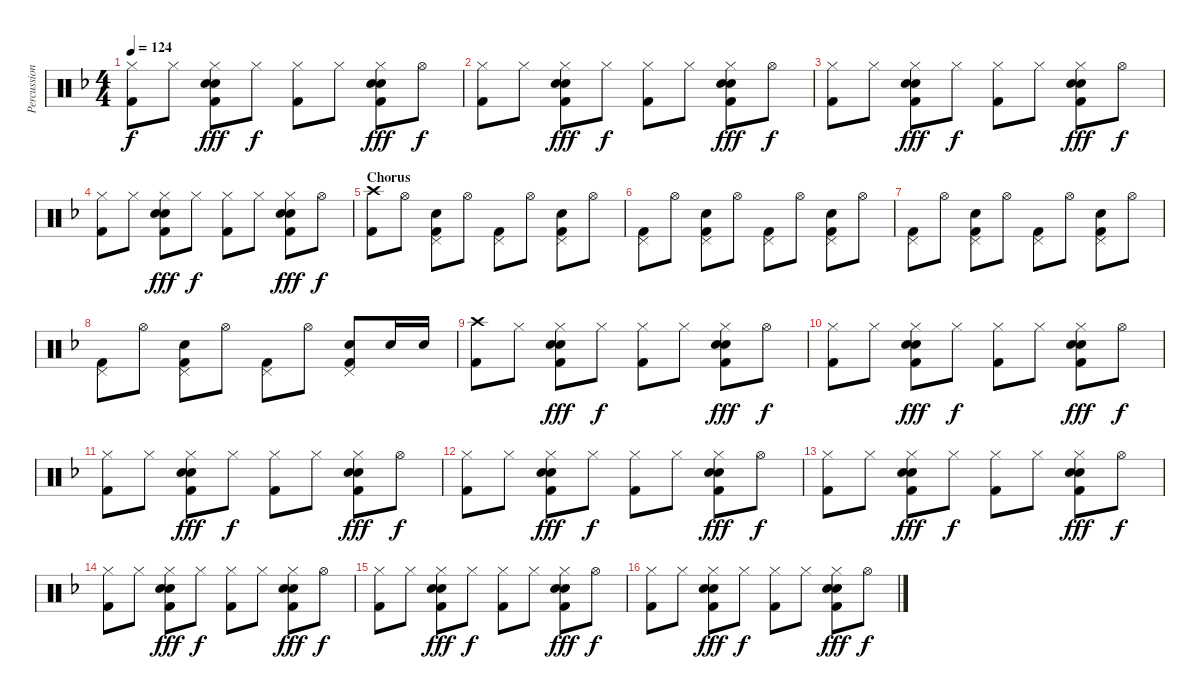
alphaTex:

\track ("Percussion" "Percussion") {instrument percussion}
\staff {score}
\articulation defaults
\ts (4 4)
\tempo 124
\clef neutral
\ks f
("Hi-Hat (closed)" "Kick (hit) 2").8{dy f} "Hi-Hat (closed)".8 ("Hi-Hat (closed)" "Hand Clap (hit)" "Electric Snare (hit)" "Kick (hit) 2").8{dy fff} "Hi-Hat (closed)".8{dy f} ("Hi-Hat (closed)" "Kick (hit) 2").8 "Hi-Hat (closed)".8 ("Hi-Hat (closed)" "Hand Clap (hit)" "Electric Snare (hit)" "Kick (hit) 2").8{dy fff} "Hi-Hat (open)".8{dy f} |
("Hi-Hat (closed)" "Kick (hit) 2").8 "Hi-Hat (closed)".8 ("Hi-Hat (closed)" "Hand Clap (hit)" "Electric Snare (hit)" "Kick (hit) 2").8{dy fff} "Hi-Hat (closed)".8{dy f} ("Hi-Hat (closed)" "Kick (hit) 2").8 "Hi-Hat (closed)".8 ("Hi-Hat (closed)" "Hand Clap (hit)" "Electric Snare (hit)" "Kick (hit) 2").8{dy fff} "Hi-Hat (open)".8{dy f} |
("Hi-Hat (closed)" "Kick (hit) 2").8 "Hi-Hat (closed)".8 ("Hi-Hat (closed)" "Hand Clap (hit)" "Electric Snare (hit)" "Kick (hit) 2").8{dy fff} "Hi-Hat (closed)".8{dy f} ("Hi-Hat (closed)" "Kick (hit) 2").8 "Hi-Hat (closed)".8 ("Hi-Hat (closed)" "Hand Clap (hit)" "Electric Snare (hit)" "Kick (hit) 2").8{dy fff} "Hi-Hat (open)".8{dy f} |
("Hi-Hat (closed)" "Kick (hit) 2").8 "Hi-Hat (closed)".8 ("Hi-Hat (closed)" "Hand Clap (hit)" "Electric Snare (hit)" "Kick (hit) 2").8{dy fff} "Hi-Hat (closed)".8{dy f} ("Hi-Hat (closed)" "Kick (hit) 2").8 "Hi-Hat (closed)".8 ("Hi-Hat (closed)" "Hand Clap (hit)" "Electric Snare (hit)" "Kick (hit) 2").8{dy fff} "Hi-Hat (open)".8{dy f} |
\section ("" "Chorus")
("Crash high (hit)" "Kick (hit) 2").8 "Hi-Hat (open)".8 ("Pedal Hi-Hat (hit)" "Electric Snare (hit)" "Kick (hit) 2").8 "Hi-Hat (open)".8 ("Pedal Hi-Hat (hit)" "Kick (hit) 2").8 "Hi-Hat (open)".8 ("Pedal Hi-Hat (hit)" "Electric Snare (hit)" "Kick (hit) 2").8 "Hi-Hat (open)".8 |
("Pedal Hi-Hat (hit)" "Kick (hit) 2").8 "Hi-Hat (open)".8 ("Pedal Hi-Hat (hit)" "Electric Snare (hit)" "Kick (hit) 2").8 "Hi-Hat (open)".8 ("Pedal Hi-Hat (hit)" "Kick (hit) 2").8 "Hi-Hat (open)".8 ("Pedal Hi-Hat (hit)" "Electric Snare (hit)" "Kick (hit) 2").8 "Hi-Hat (open)".8 |
("Pedal Hi-Hat (hit)" "Kick (hit) 2").8 "Hi-Hat (open)".8 ("Pedal Hi-Hat (hit)" "Electric Snare (hit)" "Kick (hit) 2").8 "Hi-Hat (open)".8 ("Pedal Hi-Hat (hit)" "Kick (hit) 2").8 "Hi-Hat (open)".8 ("Pedal Hi-Hat (hit)" "Electric Snare (hit)" "Kick (hit) 2").8 "Hi-Hat (open)".8 |
("Pedal Hi-Hat (hit)" "Kick (hit) 2").8 "Hi-Hat (open)".8 ("Pedal Hi-Hat (hit)" "Electric Snare (hit)" "Kick (hit) 2").8 "Hi-Hat (open)".8 ("Pedal Hi-Hat (hit)" "Kick (hit) 2").8 "Hi-Hat (open)".8 ("Pedal Hi-Hat (hit)" "Electric Snare (hit)" "Kick (hit) 2").8 "Electric Snare (hit)".16 "Electric Snare (hit)".16 |
("Crash high (hit)" "Kick (hit) 2").8 "Hi-Hat (closed)".8 ("Hi-Hat (closed)" "Hand Clap (hit)" "Electric Snare (hit)" "Kick (hit) 2").8{dy fff} "Hi-Hat (closed)".8{dy f} ("Hi-Hat (closed)" "Kick (hit) 2").8 "Hi-Hat (closed)".8 ("Hi-Hat (closed)" "Hand Clap (hit)" "Electric Snare (hit)" "Kick (hit) 2").8{dy fff} "Hi-Hat (open)".8{dy f} |
("Hi-Hat (closed)" "Kick (hit) 2").8 "Hi-Hat (closed)".8 ("Hi-Hat (closed)" "Hand Clap (hit)" "Electric Snare (hit)" "Kick (hit) 2").8{dy fff} "Hi-Hat (closed)".8{dy f} ("Hi-Hat (closed)" "Kick (hit) 2").8 "Hi-Hat (closed)".8 ("Hi-Hat (closed)" "Hand Clap (hit)" "Electric Snare (hit)" "Kick (hit) 2").8{dy fff} "Hi-Hat (open)".8{dy f} |
("Hi-Hat (closed)" "Kick (hit) 2").8 "Hi-Hat (closed)".8 ("Hi-Hat (closed)" "Hand Clap (hit)" "Electric Snare (hit)" "Kick (hit) 2").8{dy fff} "Hi-Hat (closed)".8{dy f} ("Hi-Hat (closed)" "Kick (hit) 2").8 "Hi-Hat (closed)".8 ("Hi-Hat (closed)" "Hand Clap (hit)" "Electric Snare (hit)" "Kick (hit) 2").8{dy fff} "Hi-Hat (open)".8{dy f} |
("Hi-Hat (closed)" "Kick (hit) 2").8 "Hi-Hat (closed)".8 ("Hi-Hat (closed)" "Hand Clap (hit)" "Electric Snare (hit)" "Kick (hit) 2").8{dy fff} "Hi-Hat (closed)".8{dy f} ("Hi-Hat (closed)" "Kick (hit) 2").8 "Hi-Hat (closed)".8 ("Hi-Hat (closed)" "Hand Clap (hit)" "Electric Snare (hit)" "Kick (hit) 2").8{dy fff} "Hi-Hat (open)".8{dy f} |
("Hi-Hat (closed)" "Kick (hit) 2").8 "Hi-Hat (closed)".8 ("Hi-Hat (closed)" "Hand Clap (hit)" "Electric Snare (hit)" "Kick (hit) 2").8{dy fff} "Hi-Hat (closed)".8{dy f} ("Hi-Hat (closed)" "Kick (hit) 2").8 "Hi-Hat (closed)".8 ("Hi-Hat (closed)" "Hand Clap (hit)" "Electric Snare (hit)" "Kick (hit) 2").8{dy fff} "Hi-Hat (open)".8{dy f} |
("Hi-Hat (closed)" "Kick (hit) 2").8 "Hi-Hat (closed)".8 ("Hi-Hat (closed)" "Hand Clap (hit)" "Electric Snare (hit)" "Kick (hit) 2").8{dy fff} "Hi-Hat (closed)".8{dy f} ("Hi-Hat (closed)" "Kick (hit) 2").8 "Hi-Hat (closed)".8 ("Hi-Hat (closed)" "Hand Clap (hit)" "Electric Snare (hit)" "Kick (hit) 2").8{dy fff} "Hi-Hat (open)".8{dy f} |
("Hi-Hat (closed)" "Kick (hit) 2").8 "Hi-Hat (closed)".8 ("Hi-Hat (closed)" "Hand Clap (hit)" "Electric Snare (hit)" "Kick (hit) 2").8{dy fff} "Hi-Hat (closed)".8{dy f} ("Hi-Hat (closed)" "Kick (hit) 2").8 "Hi-Hat (closed)".8 ("Hi-Hat (closed)" "Hand Clap (hit)" "Electric Snare (hit)" "Kick (hit) 2").8{dy fff} "Hi-Hat (open)".8{dy f} |
("Hi-Hat (closed)" "Kick (hit) 2").8 "Hi-Hat (closed)".8 ("Hi-Hat (closed)" "Hand Clap (hit)" "Electric Snare (hit)" "Kick (hit) 2").8{dy fff} "Hi-Hat (closed)".8{dy f} ("Hi-Hat (closed)" "Kick (hit) 2").8 "Hi-Hat (closed)".8 ("Hi-Hat (closed)" "Hand Clap (hit)" "Electric Snare (hit)" "Kick (hit) 2").8{dy fff} "Hi-Hat (open)".8{dy f}
